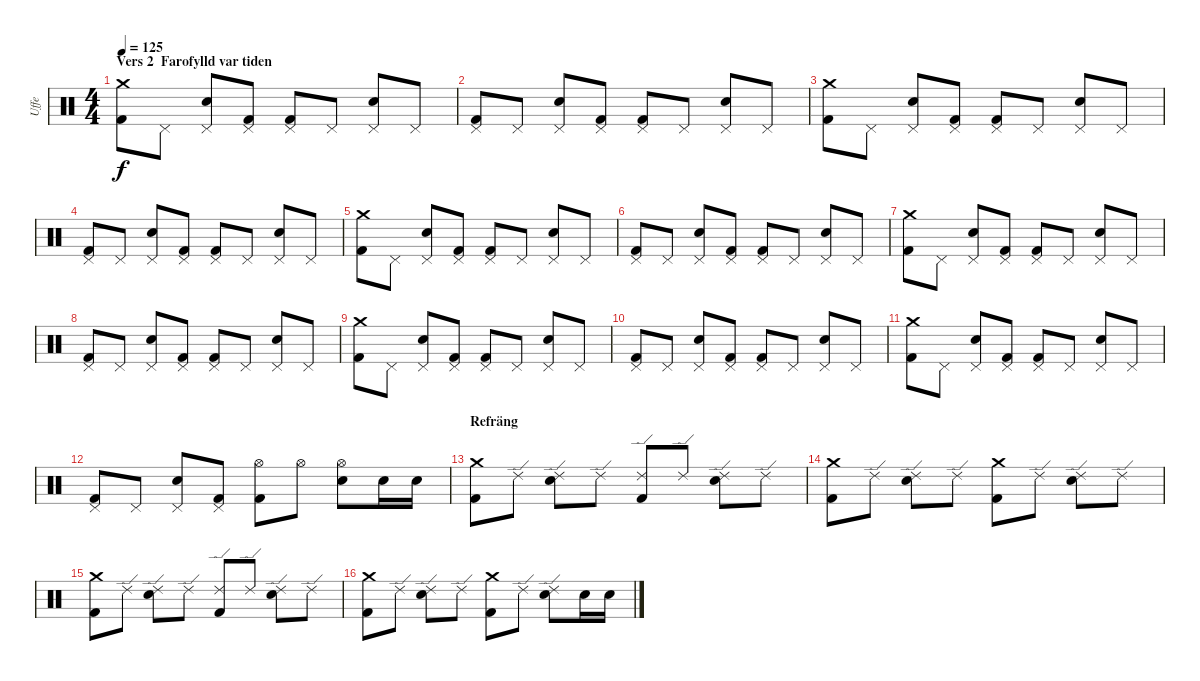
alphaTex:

\track ("Uffe" "Uffe") {instrument percussion}
\staff {score}
\articulation defaults
\ts (4 4)
\section ("" "Vers 2  Farofylld var tiden")
\tempo 125
\clef neutral
\ks c
("Crash medium (hit)" "Kick (hit) 2").8{dy f} "Pedal Hi-Hat (hit)".8 ("Pedal Hi-Hat (hit)" "Electric Snare (hit)").8 ("Pedal Hi-Hat (hit)" "Kick (hit) 2").8 ("Pedal Hi-Hat (hit)" "Kick (hit) 2").8 "Pedal Hi-Hat (hit)".8 ("Pedal Hi-Hat (hit)" "Electric Snare (hit)").8 "Pedal Hi-Hat (hit)".8 |
("Pedal Hi-Hat (hit)" "Kick (hit) 2").8 "Pedal Hi-Hat (hit)".8 ("Pedal Hi-Hat (hit)" "Electric Snare (hit)").8 ("Pedal Hi-Hat (hit)" "Kick (hit) 2").8 ("Pedal Hi-Hat (hit)" "Kick (hit) 2").8 "Pedal Hi-Hat (hit)".8 ("Pedal Hi-Hat (hit)" "Electric Snare (hit)").8 "Pedal Hi-Hat (hit)".8 |
("Crash medium (hit)" "Kick (hit) 2").8 "Pedal Hi-Hat (hit)".8 ("Pedal Hi-Hat (hit)" "Electric Snare (hit)").8 ("Pedal Hi-Hat (hit)" "Kick (hit) 2").8 ("Pedal Hi-Hat (hit)" "Kick (hit) 2").8 "Pedal Hi-Hat (hit)".8 ("Pedal Hi-Hat (hit)" "Electric Snare (hit)").8 "Pedal Hi-Hat (hit)".8 |
("Pedal Hi-Hat (hit)" "Kick (hit) 2").8 "Pedal Hi-Hat (hit)".8 ("Pedal Hi-Hat (hit)" "Electric Snare (hit)").8 ("Pedal Hi-Hat (hit)" "Kick (hit) 2").8 ("Pedal Hi-Hat (hit)" "Kick (hit) 2").8 "Pedal Hi-Hat (hit)".8 ("Pedal Hi-Hat (hit)" "Electric Snare (hit)").8 "Pedal Hi-Hat (hit)".8 |
("Crash medium (hit)" "Kick (hit) 2").8 "Pedal Hi-Hat (hit)".8 ("Pedal Hi-Hat (hit)" "Electric Snare (hit)").8 ("Pedal Hi-Hat (hit)" "Kick (hit) 2").8 ("Pedal Hi-Hat (hit)" "Kick (hit) 2").8 "Pedal Hi-Hat (hit)".8 ("Pedal Hi-Hat (hit)" "Electric Snare (hit)").8 "Pedal Hi-Hat (hit)".8 |
("Pedal Hi-Hat (hit)" "Kick (hit) 2").8 "Pedal Hi-Hat (hit)".8 ("Pedal Hi-Hat (hit)" "Electric Snare (hit)").8 ("Pedal Hi-Hat (hit)" "Kick (hit) 2").8 ("Pedal Hi-Hat (hit)" "Kick (hit) 2").8 "Pedal Hi-Hat (hit)".8 ("Pedal Hi-Hat (hit)" "Electric Snare (hit)").8 "Pedal Hi-Hat (hit)".8 |
("Crash medium (hit)" "Kick (hit) 2").8 "Pedal Hi-Hat (hit)".8 ("Pedal Hi-Hat (hit)" "Electric Snare (hit)").8 ("Pedal Hi-Hat (hit)" "Kick (hit) 2").8 ("Pedal Hi-Hat (hit)" "Kick (hit) 2").8 "Pedal Hi-Hat (hit)".8 ("Pedal Hi-Hat (hit)" "Electric Snare (hit)").8 "Pedal Hi-Hat (hit)".8 |
("Pedal Hi-Hat (hit)" "Kick (hit) 2").8 "Pedal Hi-Hat (hit)".8 ("Pedal Hi-Hat (hit)" "Electric Snare (hit)").8 ("Pedal Hi-Hat (hit)" "Kick (hit) 2").8 ("Pedal Hi-Hat (hit)" "Kick (hit) 2").8 "Pedal Hi-Hat (hit)".8 ("Pedal Hi-Hat (hit)" "Electric Snare (hit)").8 "Pedal Hi-Hat (hit)".8 |
("Crash medium (hit)" "Kick (hit) 2").8 "Pedal Hi-Hat (hit)".8 ("Pedal Hi-Hat (hit)" "Electric Snare (hit)").8 ("Pedal Hi-Hat (hit)" "Kick (hit) 2").8 ("Pedal Hi-Hat (hit)" "Kick (hit) 2").8 "Pedal Hi-Hat (hit)".8 ("Pedal Hi-Hat (hit)" "Electric Snare (hit)").8 "Pedal Hi-Hat (hit)".8 |
("Pedal Hi-Hat (hit)" "Kick (hit) 2").8 "Pedal Hi-Hat (hit)".8 ("Pedal Hi-Hat (hit)" "Electric Snare (hit)").8 ("Pedal Hi-Hat (hit)" "Kick (hit) 2").8 ("Pedal Hi-Hat (hit)" "Kick (hit) 2").8 "Pedal Hi-Hat (hit)".8 ("Pedal Hi-Hat (hit)" "Electric Snare (hit)").8 "Pedal Hi-Hat (hit)".8 |
("Crash medium (hit)" "Kick (hit) 2").8 "Pedal Hi-Hat (hit)".8 ("Pedal Hi-Hat (hit)" "Electric Snare (hit)").8 ("Pedal Hi-Hat (hit)" "Kick (hit) 2").8 ("Pedal Hi-Hat (hit)" "Kick (hit) 2").8 "Pedal Hi-Hat (hit)".8 ("Pedal Hi-Hat (hit)" "Electric Snare (hit)").8 "Pedal Hi-Hat (hit)".8 |
("Pedal Hi-Hat (hit)" "Kick (hit) 2").8 "Pedal Hi-Hat (hit)".8 ("Pedal Hi-Hat (hit)" "Electric Snare (hit)").8 ("Pedal Hi-Hat (hit)" "Kick (hit) 2").8 ("Hi-Hat (open)" "Kick (hit) 2").8 "Hi-Hat (open)".8 ("Hi-Hat (open)" "Electric Snare (hit)").8 "Electric Snare (hit)".16 "Electric Snare (hit)".16 |
\section ("" "Refräng")
("Crash medium (hit)" "Kick (hit) 2").8 "Ride (edge) 2".8 ("Ride (edge) 2" "Electric Snare (hit)").8 "Ride (edge) 2".8 ("Ride (edge) 2" "Kick (hit) 2").8 "Ride (edge) 2".8 ("Ride (edge) 2" "Electric Snare (hit)").8 "Ride (edge) 2".8 |
("Crash medium (hit)" "Kick (hit) 2").8 "Ride (edge) 2".8 ("Ride (edge) 2" "Electric Snare (hit)").8 "Ride (edge) 2".8 ("Crash medium (hit)" "Kick (hit) 2").8 "Ride (edge) 2".8 ("Ride (edge) 2" "Electric Snare (hit)").8 "Ride (edge) 2".8 |
("Crash medium (hit)" "Kick (hit) 2").8 "Ride (edge) 2".8 ("Ride (edge) 2" "Electric Snare (hit)").8 "Ride (edge) 2".8 ("Ride (edge) 2" "Kick (hit) 2").8 "Ride (edge) 2".8 ("Ride (edge) 2" "Electric Snare (hit)").8 "Ride (edge) 2".8 |
("Crash medium (hit)" "Kick (hit) 2").8 "Ride (edge) 2".8 ("Ride (edge) 2" "Electric Snare (hit)").8 "Ride (edge) 2".8 ("Crash medium (hit)" "Kick (hit) 2").8 "Ride (edge) 2".8 ("Ride (edge) 2" "Electric Snare (hit)").8 "Electric Snare (hit)".16 "Electric Snare (hit)".16
